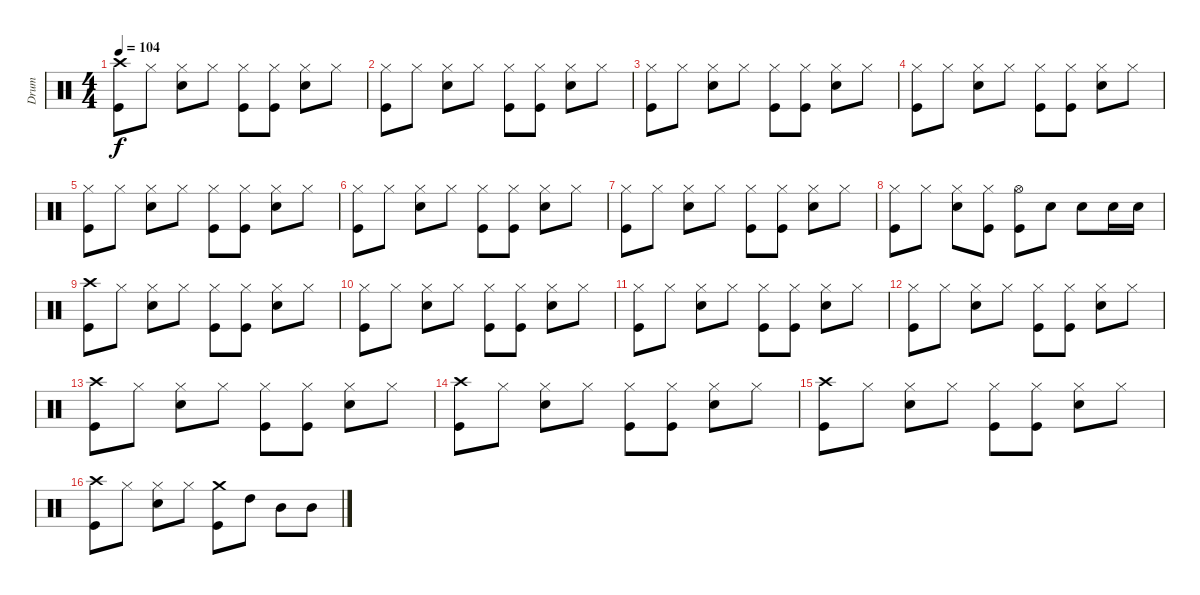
\track ("Drum" "Drum") {instrument percussion}
\staff {score}
\articulation defaults
\ts (4 4)
\tempo 104
\clef neutral
\ks c
("Crash high (hit)" "Kick (hit)").8{dy f} "Hi-Hat (closed)".8 ("Electric Snare (hit)" "Hi-Hat (closed)").8 "Hi-Hat (closed)".8 ("Hi-Hat (closed)" "Kick (hit)").8 ("Hi-Hat (closed)" "Kick (hit)").8 ("Electric Snare (hit)" "Hi-Hat (closed)").8 "Hi-Hat (closed)".8 |
("Hi-Hat (closed)" "Kick (hit)").8 "Hi-Hat (closed)".8 ("Electric Snare (hit)" "Hi-Hat (closed)").8 "Hi-Hat (closed)".8 ("Hi-Hat (closed)" "Kick (hit)").8 ("Hi-Hat (closed)" "Kick (hit)").8 ("Electric Snare (hit)" "Hi-Hat (closed)").8 "Hi-Hat (closed)".8 |
("Hi-Hat (closed)" "Kick (hit)").8 "Hi-Hat (closed)".8 ("Electric Snare (hit)" "Hi-Hat (closed)").8 "Hi-Hat (closed)".8 ("Hi-Hat (closed)" "Kick (hit)").8 ("Hi-Hat (closed)" "Kick (hit)").8 ("Electric Snare (hit)" "Hi-Hat (closed)").8 "Hi-Hat (closed)".8 |
("Hi-Hat (closed)" "Kick (hit)").8 "Hi-Hat (closed)".8 ("Electric Snare (hit)" "Hi-Hat (closed)").8 "Hi-Hat (closed)".8 ("Hi-Hat (closed)" "Kick (hit)").8 ("Hi-Hat (closed)" "Kick (hit)").8 ("Electric Snare (hit)" "Hi-Hat (closed)").8 "Hi-Hat (closed)".8 |
("Hi-Hat (closed)" "Kick (hit)").8 "Hi-Hat (closed)".8 ("Electric Snare (hit)" "Hi-Hat (closed)").8 "Hi-Hat (closed)".8 ("Hi-Hat (closed)" "Kick (hit)").8 ("Hi-Hat (closed)" "Kick (hit)").8 ("Electric Snare (hit)" "Hi-Hat (closed)").8 "Hi-Hat (closed)".8 |
("Hi-Hat (closed)" "Kick (hit)").8 "Hi-Hat (closed)".8 ("Electric Snare (hit)" "Hi-Hat (closed)").8 "Hi-Hat (closed)".8 ("Hi-Hat (closed)" "Kick (hit)").8 ("Hi-Hat (closed)" "Kick (hit)").8 ("Electric Snare (hit)" "Hi-Hat (closed)").8 "Hi-Hat (closed)".8 |
("Hi-Hat (closed)" "Kick (hit)").8 "Hi-Hat (closed)".8 ("Electric Snare (hit)" "Hi-Hat (closed)").8 "Hi-Hat (closed)".8 ("Hi-Hat (closed)" "Kick (hit)").8 ("Hi-Hat (closed)" "Kick (hit)").8 ("Electric Snare (hit)" "Hi-Hat (closed)").8 "Hi-Hat (closed)".8 |
("Hi-Hat (closed)" "Kick (hit)").8 "Hi-Hat (closed)".8 ("Electric Snare (hit)" "Hi-Hat (closed)").8 ("Hi-Hat (closed)" "Kick (hit)").8 ("Hi-Hat (open)" "Kick (hit)").8 "Electric Snare (hit)".8 "Electric Snare (hit)".8 "Electric Snare (hit)".16 "Electric Snare (hit)".16 |
("Crash high (hit)" "Kick (hit)").8 "Hi-Hat (closed)".8 ("Electric Snare (hit)" "Hi-Hat (closed)").8 "Hi-Hat (closed)".8 ("Hi-Hat (closed)" "Kick (hit)").8 ("Hi-Hat (closed)" "Kick (hit)").8 ("Electric Snare (hit)" "Hi-Hat (closed)").8 "Hi-Hat (closed)".8 |
("Hi-Hat (closed)" "Kick (hit)").8 "Hi-Hat (closed)".8 ("Electric Snare (hit)" "Hi-Hat (closed)").8 "Hi-Hat (closed)".8 ("Hi-Hat (closed)" "Kick (hit)").8 ("Hi-Hat (closed)" "Kick (hit)").8 ("Electric Snare (hit)" "Hi-Hat (closed)").8 "Hi-Hat (closed)".8 |
("Hi-Hat (closed)" "Kick (hit)").8 "Hi-Hat (closed)".8 ("Electric Snare (hit)" "Hi-Hat (closed)").8 "Hi-Hat (closed)".8 ("Hi-Hat (closed)" "Kick (hit)").8 ("Hi-Hat (closed)" "Kick (hit)").8 ("Electric Snare (hit)" "Hi-Hat (closed)").8 "Hi-Hat (closed)".8 |
("Hi-Hat (closed)" "Kick (hit)").8 "Hi-Hat (closed)".8 ("Electric Snare (hit)" "Hi-Hat (closed)").8 "Hi-Hat (closed)".8 ("Hi-Hat (closed)" "Kick (hit)").8 ("Hi-Hat (closed)" "Kick (hit)").8 ("Electric Snare (hit)" "Hi-Hat (closed)").8 "Hi-Hat (closed)".8 |
("Crash high (hit)" "Kick (hit)").8 "Hi-Hat (closed)".8 ("Electric Snare (hit)" "Hi-Hat (closed)").8 "Hi-Hat (closed)".8 ("Hi-Hat (closed)" "Kick (hit)").8 ("Hi-Hat (closed)" "Kick (hit)").8 ("Electric Snare (hit)" "Hi-Hat (closed)").8 "Hi-Hat (closed)".8 |
("Crash high (hit)" "Kick (hit)").8 "Hi-Hat (closed)".8 ("Electric Snare (hit)" "Hi-Hat (closed)").8 "Hi-Hat (closed)".8 ("Hi-Hat (closed)" "Kick (hit)").8 ("Hi-Hat (closed)" "Kick (hit)").8 ("Electric Snare (hit)" "Hi-Hat (closed)").8 "Hi-Hat (closed)".8 |
("Crash high (hit)" "Kick (hit)").8 "Hi-Hat (closed)".8 ("Electric Snare (hit)" "Hi-Hat (closed)").8 "Hi-Hat (closed)".8 ("Hi-Hat (closed)" "Kick (hit)").8 ("Hi-Hat (closed)" "Kick (hit)").8 ("Electric Snare (hit)" "Hi-Hat (closed)").8 "Hi-Hat (closed)".8 |
("Crash high (hit)" "Kick (hit)").8 "Hi-Hat (closed)".8 ("Electric Snare (hit)" "Hi-Hat (closed)").8 "Hi-Hat (closed)".8 ("Crash medium (hit)" "Kick (hit)").8 "High Tom (hit)".8 "Mid Tom (hit)".8 "Mid Tom (hit)".8
